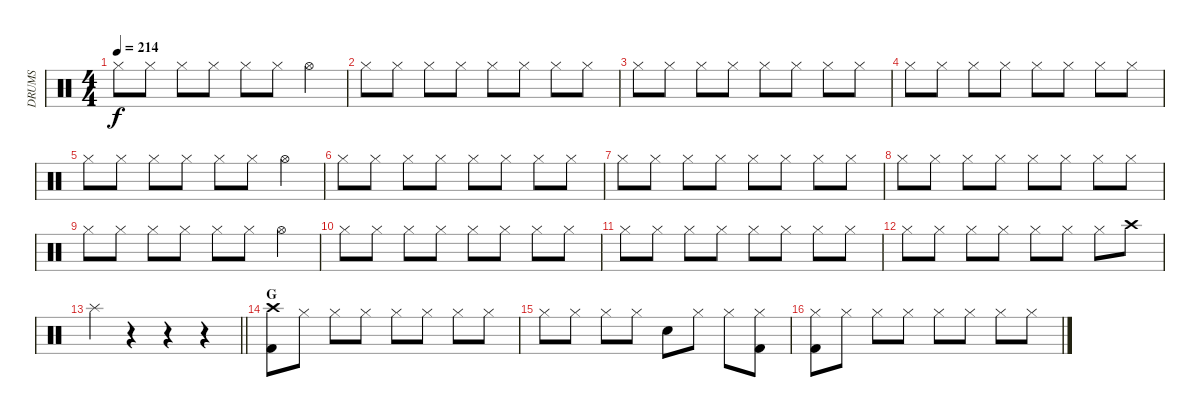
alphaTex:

\track ("DRUMS" "DRUMS") {instrument percussion}
\staff {score}
\articulation defaults
\ts (4 4)
\tempo 214
\clef neutral
\ks c "Hi-Hat (closed)".8{dy f} "Hi-Hat (closed)".8 "Hi-Hat (closed)".8 "Hi-Hat (closed)".8 "Hi-Hat (closed)".8 "Hi-Hat (closed)".8 "Hi-Hat (open)".4
|
"Hi-Hat (closed)".8 "Hi-Hat (closed)".8 "Hi-Hat (closed)".8 "Hi-Hat (closed)".8 "Hi-Hat (closed)".8 "Hi-Hat (closed)".8 "Hi-Hat (closed)".8 "Hi-Hat (closed)".8 |
"Hi-Hat (closed)".8 "Hi-Hat (closed)".8 "Hi-Hat (closed)".8 "Hi-Hat (closed)".8 "Hi-Hat (closed)".8 "Hi-Hat (closed)".8 "Hi-Hat (closed)".8 "Hi-Hat (closed)".8 |
"Hi-Hat (closed)".8 "Hi-Hat (closed)".8 "Hi-Hat (closed)".8 "Hi-Hat (closed)".8 "Hi-Hat (closed)".8 "Hi-Hat (closed)".8 "Hi-Hat (closed)".8 "Hi-Hat (closed)".8 |
"Hi-Hat (closed)".8 "Hi-Hat (closed)".8 "Hi-Hat (closed)".8 "Hi-Hat (closed)".8 "Hi-Hat (closed)".8 "Hi-Hat (closed)".8 "Hi-Hat (open)".4 |
"Hi-Hat (closed)".8 "Hi-Hat (closed)".8 "Hi-Hat (closed)".8 "Hi-Hat (closed)".8 "Hi-Hat (closed)".8 "Hi-Hat (closed)".8 "Hi-Hat (closed)".8 "Hi-Hat (closed)".8 |
"Hi-Hat (closed)".8 "Hi-Hat (closed)".8 "Hi-Hat (closed)".8 "Hi-Hat (closed)".8 "Hi-Hat (closed)".8 "Hi-Hat (closed)".8 "Hi-Hat (closed)".8 "Hi-Hat (closed)".8 |
"Hi-Hat (closed)".8 "Hi-Hat (closed)".8 "Hi-Hat (closed)".8 "Hi-Hat (closed)".8 "Hi-Hat (closed)".8 "Hi-Hat (closed)".8 "Hi-Hat (closed)".8 "Hi-Hat (closed)".8 |
"Hi-Hat (closed)".8 "Hi-Hat (closed)".8 "Hi-Hat (closed)".8 "Hi-Hat (closed)".8 "Hi-Hat (closed)".8 "Hi-Hat (closed)".8 "Hi-Hat (open)".4 |
"Hi-Hat (closed)".8 "Hi-Hat (closed)".8 "Hi-Hat (closed)".8 "Hi-Hat (closed)".8 "Hi-Hat (closed)".8 "Hi-Hat (closed)".8 "Hi-Hat (closed)".8 "Hi-Hat (closed)".8 |
"Hi-Hat (closed)".8 "Hi-Hat (closed)".8 "Hi-Hat (closed)".8 "Hi-Hat (closed)".8 "Hi-Hat (closed)".8 "Hi-Hat (closed)".8 "Hi-Hat (closed)".8 "Hi-Hat (closed)".8 |
"Hi-Hat (closed)".8 "Hi-Hat (closed)".8 "Hi-Hat (closed)".8 "Hi-Hat (closed)".8 "Hi-Hat (closed)".8 "Hi-Hat (closed)".8 "Hi-Hat (closed)".8 "Crash high (hit)".8 |
\barLineRight lightlight "Splash (hit)".4
r.4 r.4 r.4 |
\section ("" "G")
("Crash high (hit)" "Kick (hit) 2").8 "Hi-Hat (closed)".8 "Hi-Hat (closed)".8 "Hi-Hat (closed)".8 "Hi-Hat (closed)".8 "Hi-Hat (closed)".8 "Hi-Hat (closed)".8 "Hi-Hat (closed)".8 |
"Hi-Hat (closed)".8 "Hi-Hat (closed)".8 "Hi-Hat (closed)".8 "Hi-Hat (closed)".8 "Snare (hit) 2".8 "Hi-Hat (closed)".8 "Hi-Hat (closed)".8 ("Hi-Hat (closed)" "Kick (hit) 2").8 |
("Hi-Hat (closed)" "Kick (hit) 2").8 "Hi-Hat (closed)".8 "Hi-Hat (closed)".8 "Hi-Hat (closed)".8 "Hi-Hat (closed)".8 "Hi-Hat (closed)".8 "Hi-Hat (closed)".8 "Hi-Hat (closed)".8
